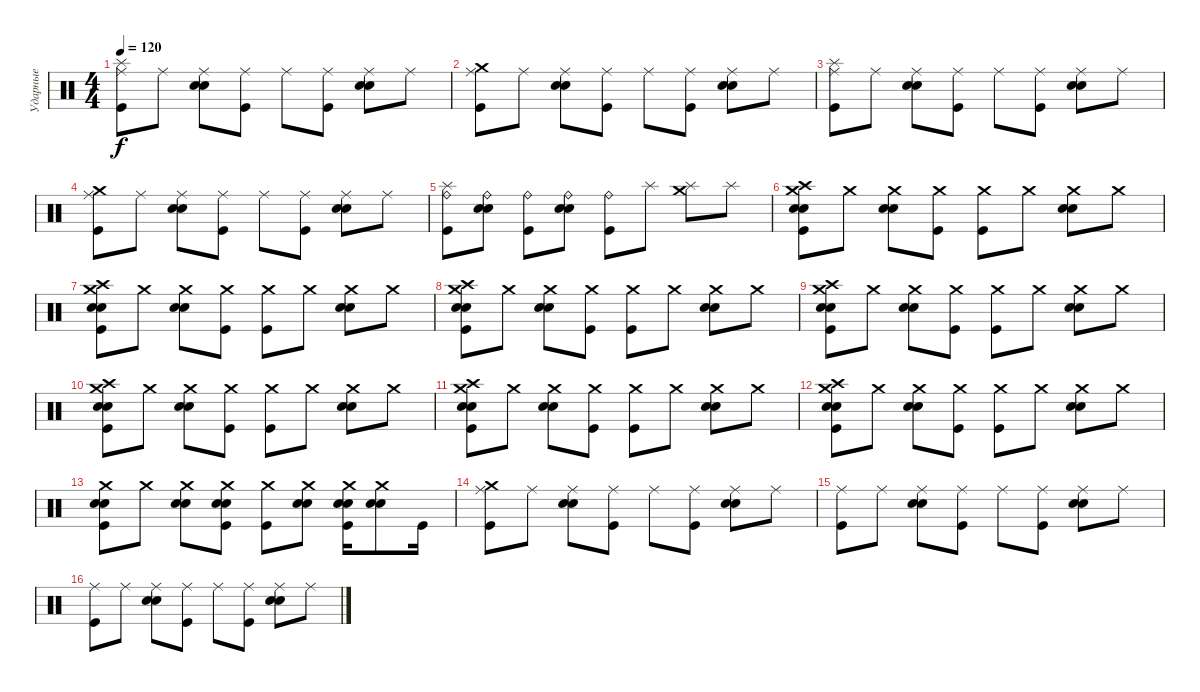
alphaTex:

\track ("Ударные" "Ударные") {instrument percussion}
\staff {score}
\articulation defaults
\ts (4 4)
\tempo 120
\clef neutral
\ks c
("Ride (middle)" "Splash (hit)" "Kick (hit)").8{dy f} "Ride (middle)".8 ("Ride (middle)" "Electric Snare (hit)" "Electric Snare (hit)").8 ("Ride (middle)" "Kick (hit)").8 "Ride (middle)".8 ("Ride (middle)" "Kick (hit)").8 ("Ride (middle)" "Electric Snare (hit)" "Electric Snare (hit)").8 "Ride (middle)".8 |
("Ride (middle)" "Crash medium (hit)" "Kick (hit)").8 "Ride (middle)".8 ("Ride (middle)" "Electric Snare (hit)" "Electric Snare (hit)").8 ("Ride (middle)" "Kick (hit)").8 "Ride (middle)".8 ("Ride (middle)" "Kick (hit)").8 ("Ride (middle)" "Electric Snare (hit)" "Electric Snare (hit)").8 "Ride (middle)".8 |
("Ride (middle)" "Splash (hit)" "Kick (hit)").8 "Ride (middle)".8 ("Ride (middle)" "Electric Snare (hit)" "Electric Snare (hit)").8 ("Ride (middle)" "Kick (hit)").8 "Ride (middle)".8 ("Ride (middle)" "Kick (hit)").8 ("Ride (middle)" "Electric Snare (hit)" "Electric Snare (hit)").8 "Ride (middle)".8 |
("Ride (middle)" "Crash medium (hit)" "Kick (hit)").8 "Ride (middle)".8 ("Ride (middle)" "Electric Snare (hit)" "Electric Snare (hit)").8 ("Ride (middle)" "Kick (hit)").8 "Ride (middle)".8 ("Ride (middle)" "Kick (hit)").8 ("Ride (middle)" "Electric Snare (hit)" "Electric Snare (hit)").8 "Ride (middle)".8 |
("Ride (bell)" "Splash (hit)" "Kick (hit)").8 ("Ride (bell)" "Electric Snare (hit)" "Electric Snare (hit)").8 ("Ride (bell)" "Kick (hit)").8 ("Ride (bell)" "Electric Snare (hit)" "Electric Snare (hit)").8 ("Ride (bell)" "Kick (hit)").8 "Splash (hit)".8 ("Splash (hit)" "Crash medium (hit)").8 "Splash (hit)".8 |
("Crash medium (hit)" "Crash high (hit)" "Electric Snare (hit)" "Electric Snare (hit)" "Kick (hit)").8 "Crash medium (hit)".8 ("Crash medium (hit)" "Electric Snare (hit)" "Electric Snare (hit)").8 ("Crash medium (hit)" "Kick (hit)").8 ("Crash medium (hit)" "Kick (hit)").8 "Crash medium (hit)".8 ("Crash medium (hit)" "Electric Snare (hit)" "Electric Snare (hit)").8 "Crash medium (hit)".8 |
("Crash medium (hit)" "Crash high (hit)" "Electric Snare (hit)" "Electric Snare (hit)" "Kick (hit)").8 "Crash medium (hit)".8 ("Crash medium (hit)" "Electric Snare (hit)" "Electric Snare (hit)").8 ("Crash medium (hit)" "Kick (hit)").8 ("Crash medium (hit)" "Kick (hit)").8 "Crash medium (hit)".8 ("Crash medium (hit)" "Electric Snare (hit)" "Electric Snare (hit)").8 "Crash medium (hit)".8 |
("Crash medium (hit)" "Crash high (hit)" "Electric Snare (hit)" "Electric Snare (hit)" "Kick (hit)").8 "Crash medium (hit)".8 ("Crash medium (hit)" "Electric Snare (hit)" "Electric Snare (hit)").8 ("Crash medium (hit)" "Kick (hit)").8 ("Crash medium (hit)" "Kick (hit)").8 "Crash medium (hit)".8 ("Crash medium (hit)" "Electric Snare (hit)" "Electric Snare (hit)").8 "Crash medium (hit)".8 |
("Crash medium (hit)" "Crash high (hit)" "Electric Snare (hit)" "Electric Snare (hit)" "Kick (hit)").8 "Crash medium (hit)".8 ("Crash medium (hit)" "Electric Snare (hit)" "Electric Snare (hit)").8 ("Crash medium (hit)" "Kick (hit)").8 ("Crash medium (hit)" "Kick (hit)").8 "Crash medium (hit)".8 ("Crash medium (hit)" "Electric Snare (hit)" "Electric Snare (hit)").8 "Crash medium (hit)".8 |
("Crash medium (hit)" "Crash high (hit)" "Electric Snare (hit)" "Electric Snare (hit)" "Kick (hit)").8 "Crash medium (hit)".8 ("Crash medium (hit)" "Electric Snare (hit)" "Electric Snare (hit)").8 ("Crash medium (hit)" "Kick (hit)").8 ("Crash medium (hit)" "Kick (hit)").8 "Crash medium (hit)".8 ("Crash medium (hit)" "Electric Snare (hit)" "Electric Snare (hit)").8 "Crash medium (hit)".8 |
("Crash medium (hit)" "Crash high (hit)" "Electric Snare (hit)" "Electric Snare (hit)" "Kick (hit)").8 "Crash medium (hit)".8 ("Crash medium (hit)" "Electric Snare (hit)" "Electric Snare (hit)").8 ("Crash medium (hit)" "Kick (hit)").8 ("Crash medium (hit)" "Kick (hit)").8 "Crash medium (hit)".8 ("Crash medium (hit)" "Electric Snare (hit)" "Electric Snare (hit)").8 "Crash medium (hit)".8 |
("Crash medium (hit)" "Crash high (hit)" "Electric Snare (hit)" "Electric Snare (hit)" "Kick (hit)").8 "Crash medium (hit)".8 ("Crash medium (hit)" "Electric Snare (hit)" "Electric Snare (hit)").8 ("Crash medium (hit)" "Kick (hit)").8 ("Crash medium (hit)" "Kick (hit)").8 "Crash medium (hit)".8 ("Crash medium (hit)" "Electric Snare (hit)" "Electric Snare (hit)").8 "Crash medium (hit)".8 |
("Crash medium (hit)" "Electric Snare (hit)" "Electric Snare (hit)" "Kick (hit)").8 "Crash medium (hit)".8 ("Crash medium (hit)" "Electric Snare (hit)" "Electric Snare (hit)").8 ("Crash medium (hit)" "Electric Snare (hit)" "Electric Snare (hit)" "Kick (hit)").8 ("Crash medium (hit)" "Kick (hit)").8 ("Crash medium (hit)" "Electric Snare (hit)" "Electric Snare (hit)").8 ("Crash medium (hit)" "Electric Snare (hit)" "Electric Snare (hit)" "Kick (hit)").16 ("Crash medium (hit)" "Electric Snare (hit)" "Electric Snare (hit)").8 "Kick (hit)".16 |
("Ride (middle)" "Crash medium (hit)" "Kick (hit)").8 "Ride (middle)".8 ("Ride (middle)" "Electric Snare (hit)" "Electric Snare (hit)").8 ("Ride (middle)" "Kick (hit)").8 "Ride (middle)".8 ("Ride (middle)" "Kick (hit)").8 ("Ride (middle)" "Electric Snare (hit)" "Electric Snare (hit)").8 "Ride (middle)".8 |
("Ride (middle)" "Kick (hit)").8 "Ride (middle)".8 ("Ride (middle)" "Electric Snare (hit)" "Electric Snare (hit)").8 ("Ride (middle)" "Kick (hit)").8 "Ride (middle)".8 ("Ride (middle)" "Kick (hit)").8 ("Ride (middle)" "Electric Snare (hit)" "Electric Snare (hit)").8 "Ride (middle)".8 |
("Ride (middle)" "Kick (hit)").8 "Ride (middle)".8 ("Ride (middle)" "Electric Snare (hit)" "Electric Snare (hit)").8 ("Ride (middle)" "Kick (hit)").8 "Ride (middle)".8 ("Ride (middle)" "Kick (hit)").8 ("Ride (middle)" "Electric Snare (hit)" "Electric Snare (hit)").8 "Ride (middle)".8
